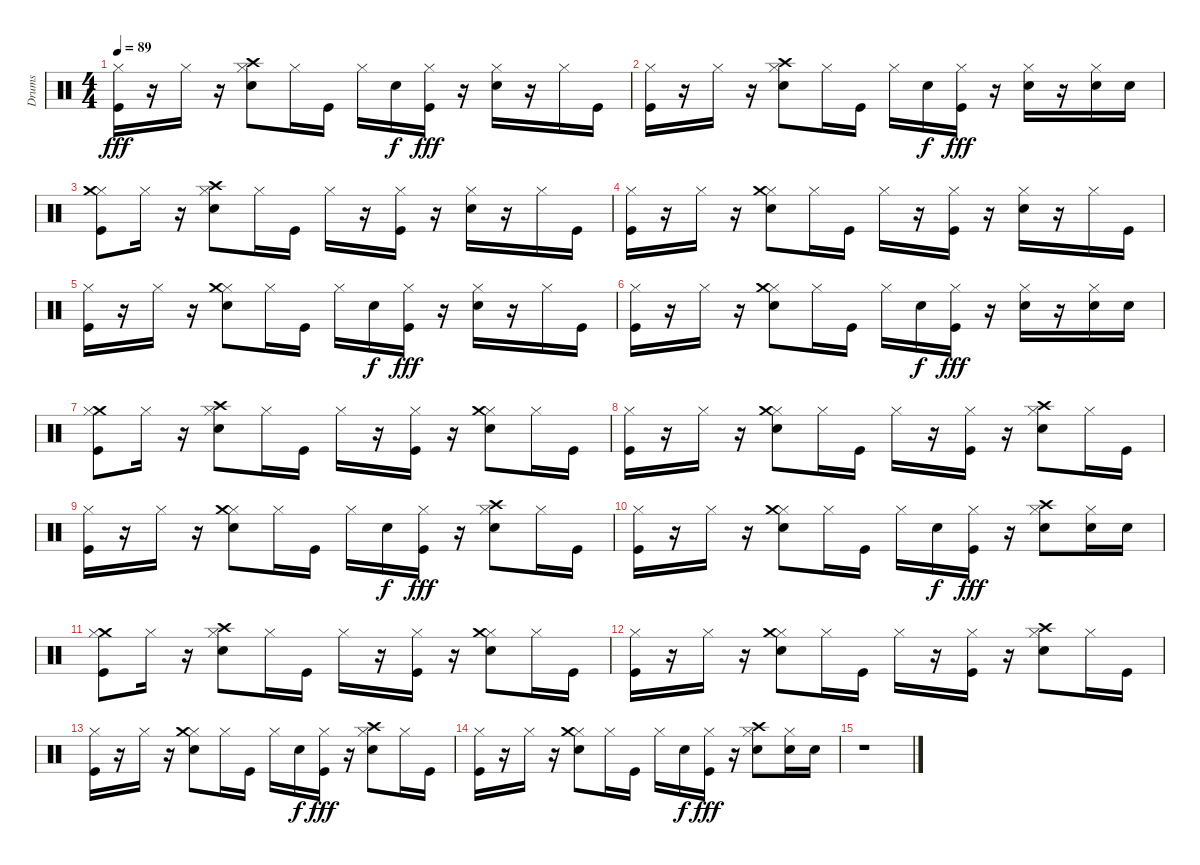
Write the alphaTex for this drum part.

\track ("Drums" "Drums") {instrument percussion}
\staff {score}
\articulation defaults
\ts (4 4)
\tempo 89
\clef neutral
\ks c
("Kick (hit)" "Hi-Hat (closed)").16{dy fff} r.16 "Hi-Hat (closed)".16 r.16 ("Hi-Hat (closed)" "Crash high (hit)" "Snare (hit) 2").8 "Hi-Hat (closed)".16 "Kick (hit)".16 "Hi-Hat (closed)".16 "Snare (hit) 2".16{dy f} ("Hi-Hat (closed)" "Kick (hit)").16{dy fff} r.16 ("Hi-Hat (closed)" "Snare (hit) 2").16 r.16 "Hi-Hat (closed)".16 "Kick (hit)".16 |
("Kick (hit)" "Hi-Hat (closed)").16 r.16 "Hi-Hat (closed)".16 r.16 ("Hi-Hat (closed)" "Crash high (hit)" "Snare (hit) 2").8 "Hi-Hat (closed)".16 "Kick (hit)".16 "Hi-Hat (closed)".16 "Snare (hit) 2".16{dy f} ("Hi-Hat (closed)" "Kick (hit)").16{dy fff} r.16 ("Hi-Hat (closed)" "Snare (hit) 2").16 r.16 ("Hi-Hat (closed)" "Snare (hit) 2").16 "Snare (hit) 2".16 |
("Kick (hit)" "Hi-Hat (closed)" "Crash medium (hit)").8 "Hi-Hat (closed)".16{volume 16} r.16 ("Hi-Hat (closed)" "Crash high (hit)" "Snare (hit) 2").8{volume 15} "Hi-Hat (closed)".16{volume 15} "Kick (hit)".16{volume 15} "Hi-Hat (closed)".16{volume 15} r.16 ("Hi-Hat (closed)" "Kick (hit)").16{volume 15} r.16 ("Hi-Hat (closed)" "Snare (hit) 2").16{volume 15} r.16 "Hi-Hat (closed)".16{volume 14} "Kick (hit)".16{volume 14} |
("Hi-Hat (closed)" "Kick (hit)").16 r.16 "Hi-Hat (closed)".16{volume 14} r.16 ("Hi-Hat (closed)" "Crash medium (hit)" "Snare (hit) 2").8{volume 14} "Hi-Hat (closed)".16{volume 14} "Kick (hit)".16{volume 14} "Hi-Hat (closed)".16{volume 14} r.16 ("Hi-Hat (closed)" "Kick (hit)").16{volume 14} r.16 ("Hi-Hat (closed)" "Snare (hit) 2").16{volume 13} r.16 "Hi-Hat (closed)".16{volume 13} "Kick (hit)".16 |
("Kick (hit)" "Hi-Hat (closed)").16{volume 13} r.16 "Hi-Hat (closed)".16{volume 13} r.16 ("Hi-Hat (closed)" "Crash medium (hit)" "Snare (hit) 2").8{volume 13} "Hi-Hat (closed)".16{volume 12} "Kick (hit)".16{volume 12} "Hi-Hat (closed)".16 "Snare (hit) 2".16{dy f volume 12} ("Hi-Hat (closed)" "Kick (hit)").16{dy fff volume 12} r.16 ("Hi-Hat (closed)" "Snare (hit) 2").16{volume 12} r.16 "Hi-Hat (closed)".16{volume 12} "Kick (hit)".16{volume 12} |
("Kick (hit)" "Hi-Hat (closed)").16{volume 12} r.16 "Hi-Hat (closed)".16{volume 12} r.16 ("Hi-Hat (closed)" "Crash medium (hit)" "Snare (hit) 2").8{volume 11} "Hi-Hat (closed)".16{volume 11} "Kick (hit)".16{volume 11} "Hi-Hat (closed)".16 "Snare (hit) 2".16{dy f volume 11} ("Hi-Hat (closed)" "Kick (hit)").16{dy fff volume 11} r.16 ("Hi-Hat (closed)" "Snare (hit) 2").16{volume 11} r.16 ("Hi-Hat (closed)" "Snare (hit) 2").16{volume 10} "Snare (hit) 2".16{volume 10} |
("Crash medium (hit)" "Hi-Hat (closed)" "Kick (hit)").8{volume 10} "Hi-Hat (closed)".16{volume 10} r.16 ("Hi-Hat (closed)" "Crash high (hit)" "Snare (hit) 2").8{volume 10} "Hi-Hat (closed)".16{volume 10} "Kick (hit)".16{volume 10} "Hi-Hat (closed)".16 r.16 ("Hi-Hat (closed)" "Kick (hit)").16{volume 9} r.16 ("Hi-Hat (closed)" "Crash medium (hit)" "Snare (hit) 2").8{volume 9} "Hi-Hat (closed)".16{volume 9} "Kick (hit)".16{volume 9} |
("Hi-Hat (closed)" "Kick (hit)").16{volume 9} r.16 "Hi-Hat (closed)".16{volume 9} r.16 ("Hi-Hat (closed)" "Crash medium (hit)" "Snare (hit) 2").8{volume 9} "Hi-Hat (closed)".16{volume 8} "Kick (hit)".16 "Hi-Hat (closed)".16{volume 8} r.16 ("Hi-Hat (closed)" "Kick (hit)").16{volume 8} r.16 ("Hi-Hat (closed)" "Crash high (hit)" "Snare (hit) 2").8{volume 8} "Hi-Hat (closed)".16{volume 8} "Kick (hit)".16{volume 8} |
("Kick (hit)" "Hi-Hat (closed)").16 r.16 "Hi-Hat (closed)".16{volume 7} r.16 ("Hi-Hat (closed)" "Crash medium (hit)" "Snare (hit) 2").8{volume 7} "Hi-Hat (closed)".16{volume 7} "Kick (hit)".16 "Hi-Hat (closed)".16{volume 7} "Snare (hit) 2".16{dy f volume 7} ("Hi-Hat (closed)" "Kick (hit)").16{dy fff} r.16 ("Hi-Hat (closed)" "Crash high (hit)" "Snare (hit) 2").8{volume 6} "Hi-Hat (closed)".16{volume 6} "Kick (hit)".16{volume 6} |
("Kick (hit)" "Hi-Hat (closed)").16 r.16 "Hi-Hat (closed)".16{volume 6} r.16 ("Hi-Hat (closed)" "Crash medium (hit)" "Snare (hit) 2").8{volume 6} "Hi-Hat (closed)".16{volume 6} "Kick (hit)".16{volume 6} "Hi-Hat (closed)".16{volume 6} "Snare (hit) 2".16{dy f volume 5} ("Hi-Hat (closed)" "Kick (hit)").16{dy fff} r.16 ("Hi-Hat (closed)" "Crash high (hit)" "Snare (hit) 2").8{volume 5} ("Hi-Hat (closed)" "Snare (hit) 2").16{volume 5} "Snare (hit) 2".16{volume 5} |
("Crash medium (hit)" "Hi-Hat (closed)" "Kick (hit)").8 "Hi-Hat (closed)".16{volume 5} r.16 ("Hi-Hat (closed)" "Crash high (hit)" "Snare (hit) 2").8{volume 4} "Hi-Hat (closed)".16{volume 4} "Kick (hit)".16{volume 4} "Hi-Hat (closed)".16{volume 4} r.16 ("Hi-Hat (closed)" "Kick (hit)").16{volume 4} r.16 ("Hi-Hat (closed)" "Crash medium (hit)" "Snare (hit) 2").8{volume 4} "Hi-Hat (closed)".16{volume 4} "Kick (hit)".16{volume 4} |
("Hi-Hat (closed)" "Kick (hit)").16 r.16 "Hi-Hat (closed)".16{volume 3} r.16 ("Hi-Hat (closed)" "Crash medium (hit)" "Snare (hit) 2").8{volume 3} "Hi-Hat (closed)".16{volume 3} "Kick (hit)".16{volume 3} "Hi-Hat (closed)".16 r.16 ("Hi-Hat (closed)" "Kick (hit)").16{volume 3} r.16 ("Hi-Hat (closed)" "Crash high (hit)" "Snare (hit) 2").8{volume 2} "Hi-Hat (closed)".16{volume 2} "Kick (hit)".16 |
("Kick (hit)" "Hi-Hat (closed)").16{volume 2} r.16 "Hi-Hat (closed)".16{volume 2} r.16 ("Hi-Hat (closed)" "Crash medium (hit)" "Snare (hit) 2").8{volume 2} "Hi-Hat (closed)".16{volume 2} "Kick (hit)".16{volume 2} "Hi-Hat (closed)".16 "Snare (hit) 2".16{dy f volume 1} ("Hi-Hat (closed)" "Kick (hit)").16{dy fff volume 1} r.16 ("Hi-Hat (closed)" "Crash high (hit)" "Snare (hit) 2").8{volume 1} "Hi-Hat (closed)".16{volume 1} "Kick (hit)".16{volume 1} |
("Kick (hit)" "Hi-Hat (closed)").16{volume 1} r.16 "Hi-Hat (closed)".16{volume 1} r.16 ("Hi-Hat (closed)" "Crash medium (hit)" "Snare (hit) 2").8{volume 0} "Hi-Hat (closed)".16{volume 0} "Kick (hit)".16{volume 0} "Hi-Hat (closed)".16 "Snare (hit) 2".16{dy f volume 0} ("Hi-Hat (closed)" "Kick (hit)").16{dy fff} r.16 ("Hi-Hat (closed)" "Crash high (hit)" "Snare (hit) 2").8 ("Hi-Hat (closed)" "Snare (hit) 2").16 "Snare (hit) 2".16 |
r.1
